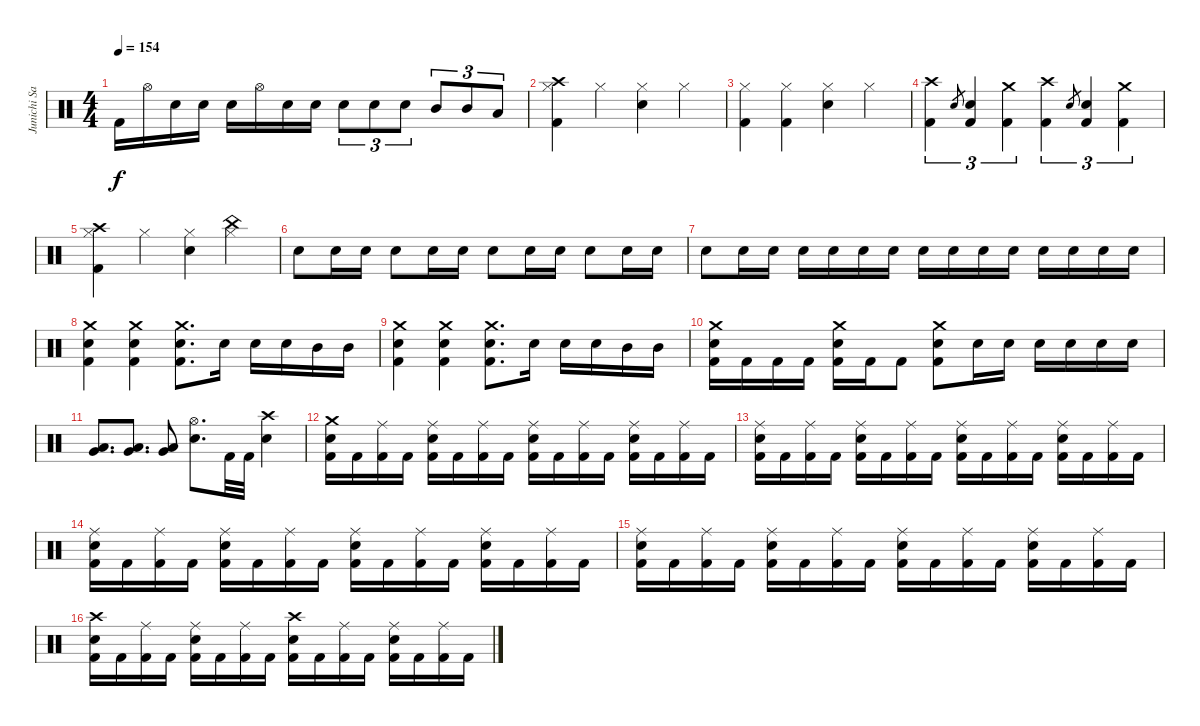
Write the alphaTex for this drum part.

\track ("Junichi Sato" "Junichi Sa") {instrument percussion}
\staff {score}
\articulation defaults
\ts (4 4)
\tempo 154
\clef neutral
\ks c "Kick (hit) 2".16{dy f} "Hi-Hat (open)".16 "Electric Snare (hit)".16 "Electric Snare (hit)".16 "Electric Snare (hit)".16 "Hi-Hat (open)".16 "Electric Snare (hit)".16 "Electric Snare (hit)".16 "Electric Snare (hit)".8{tu (3 2)} "Electric Snare (hit)".8{tu (3 2)} "Electric Snare (hit)".8{tu (3 2)} "Mid Tom (hit)".8{tu (3 2)} "Mid Tom (hit)".8{tu (3 2)} "Low Tom (hit)".8{tu (3 2)}
|
("Crash high (hit)" "Kick (hit) 2" "Hi-Hat (closed)").4 "Hi-Hat (closed)".4 ("Electric Snare (hit)" "Hi-Hat (closed)").4 "Hi-Hat (closed)".4 |
("Kick (hit) 2" "Hi-Hat (closed)").4 ("Kick (hit) 2" "Hi-Hat (closed)").4 ("Electric Snare (hit)" "Hi-Hat (closed)").4 "Hi-Hat (closed)".4 |
("Crash high (hit)" "Kick (hit) 2").4{tu (3 2)} "Electric Snare (hit)".8{gr} ("Electric Snare (hit)" "Kick (hit) 2").4{tu (3 2)} ("Crash medium (hit)" "Kick (hit) 2").4{tu (3 2)} ("Crash high (hit)" "Kick (hit) 2").4{tu (3 2)} "Electric Snare (hit)".8{gr} ("Electric Snare (hit)" "Kick (hit) 2").4{tu (3 2)} ("Crash medium (hit)" "Kick (hit) 2").4{tu (3 2)} |
("Kick (hit) 2" "Crash high (hit)" "Hi-Hat (closed)").4 "Hi-Hat (closed)".4 ("Electric Snare (hit)" "Hi-Hat (closed)").4 ("China (hit)" "Hi-Hat (closed)").4 |
"Electric Snare (hit)".8 "Electric Snare (hit)".16 "Electric Snare (hit)".16 "Electric Snare (hit)".8 "Electric Snare (hit)".16 "Electric Snare (hit)".16 "Electric Snare (hit)".8 "Electric Snare (hit)".16 "Electric Snare (hit)".16 "Electric Snare (hit)".8 "Electric Snare (hit)".16 "Electric Snare (hit)".16 |
"Electric Snare (hit)".8 "Electric Snare (hit)".16 "Electric Snare (hit)".16 "Electric Snare (hit)".16 "Electric Snare (hit)".16 "Electric Snare (hit)".16 "Electric Snare (hit)".16 "Electric Snare (hit)".16 "Electric Snare (hit)".16 "Electric Snare (hit)".16 "Electric Snare (hit)".16 "Electric Snare (hit)".16 "Electric Snare (hit)".16 "Electric Snare (hit)".16 "Electric Snare (hit)".16 |
("Kick (hit) 2" "Crash medium (hit)" "Electric Snare (hit)").4 ("Kick (hit) 2" "Crash medium (hit)" "Electric Snare (hit)").4 ("Kick (hit) 2" "Crash medium (hit)" "Electric Snare (hit)").8{d} "Electric Snare (hit)".16 "Electric Snare (hit)".16 "Electric Snare (hit)".16 "Mid Tom (hit)".16 "Mid Tom (hit)".16 |
("Kick (hit) 2" "Crash medium (hit)" "Electric Snare (hit)").4 ("Kick (hit) 2" "Crash medium (hit)" "Electric Snare (hit)").4 ("Kick (hit) 2" "Crash medium (hit)" "Electric Snare (hit)").8{d} "Electric Snare (hit)".16 "Electric Snare (hit)".16 "Electric Snare (hit)".16 "Mid Tom (hit)".16 "Mid Tom (hit)".16 |
("Kick (hit) 2" "Crash medium (hit)" "Electric Snare (hit)").16 "Kick (hit) 2".16 "Kick (hit) 2".16 "Kick (hit) 2".16 ("Kick (hit) 2" "Crash medium (hit)" "Electric Snare (hit)").16 "Kick (hit) 2".16 "Kick (hit) 2".8 ("Kick (hit) 2" "Crash medium (hit)" "Electric Snare (hit)").8 "Electric Snare (hit)".16 "Electric Snare (hit)".16 "Electric Snare (hit)".16 "Electric Snare (hit)".16 "Electric Snare (hit)".16 "Electric Snare (hit)".16 |
("Low Tom (hit)" "Very Low Tom (hit)").8{d} ("Low Tom (hit)" "Very Low Tom (hit)").8{d} ("Low Tom (hit)" "Very Low Tom (hit)").8 ("Hi-Hat (open)" "Electric Snare (hit)").8{d} "Kick (hit) 2".32 "Kick (hit) 2".32 ("Crash high (hit)" "Electric Snare (hit)").4 |
("Kick (hit) 2" "Crash medium (hit)" "Electric Snare (hit)").16 "Kick (hit) 2".16 ("Kick (hit) 2" "Ride (middle)").16 "Kick (hit) 2".16 ("Kick (hit) 2" "Ride (middle)" "Electric Snare (hit)").16 "Kick (hit) 2".16 ("Kick (hit) 2" "Ride (middle)").16 "Kick (hit) 2".16 ("Kick (hit) 2" "Ride (middle)" "Electric Snare (hit)").16 "Kick (hit) 2".16 ("Kick (hit) 2" "Ride (middle)").16 "Kick (hit) 2".16 ("Kick (hit) 2" "Ride (middle)" "Electric Snare (hit)").16 "Kick (hit) 2".16 ("Kick (hit) 2" "Ride (middle)").16 "Kick (hit) 2".16 |
("Kick (hit) 2" "Ride (middle)" "Electric Snare (hit)").16 "Kick (hit) 2".16 ("Kick (hit) 2" "Ride (middle)").16 "Kick (hit) 2".16 ("Kick (hit) 2" "Ride (middle)" "Electric Snare (hit)").16 "Kick (hit) 2".16 ("Kick (hit) 2" "Ride (middle)").16 "Kick (hit) 2".16 ("Kick (hit) 2" "Ride (middle)" "Electric Snare (hit)").16 "Kick (hit) 2".16 ("Kick (hit) 2" "Ride (middle)").16 "Kick (hit) 2".16 ("Kick (hit) 2" "Ride (middle)" "Electric Snare (hit)").16 "Kick (hit) 2".16 ("Kick (hit) 2" "Ride (middle)").16 "Kick (hit) 2".16 |
("Kick (hit) 2" "Ride (middle)" "Electric Snare (hit)").16 "Kick (hit) 2".16 ("Kick (hit) 2" "Ride (middle)").16 "Kick (hit) 2".16 ("Kick (hit) 2" "Ride (middle)" "Electric Snare (hit)").16 "Kick (hit) 2".16 ("Kick (hit) 2" "Ride (middle)").16 "Kick (hit) 2".16 ("Kick (hit) 2" "Ride (middle)" "Electric Snare (hit)").16 "Kick (hit) 2".16 ("Kick (hit) 2" "Ride (middle)").16 "Kick (hit) 2".16 ("Kick (hit) 2" "Ride (middle)" "Electric Snare (hit)").16 "Kick (hit) 2".16 ("Kick (hit) 2" "Ride (middle)").16 "Kick (hit) 2".16 |
("Kick (hit) 2" "Ride (middle)" "Electric Snare (hit)").16 "Kick (hit) 2".16 ("Kick (hit) 2" "Ride (middle)").16 "Kick (hit) 2".16 ("Kick (hit) 2" "Ride (middle)" "Electric Snare (hit)").16 "Kick (hit) 2".16 ("Kick (hit) 2" "Ride (middle)").16 "Kick (hit) 2".16 ("Kick (hit) 2" "Ride (middle)" "Electric Snare (hit)").16 "Kick (hit) 2".16 ("Kick (hit) 2" "Ride (middle)").16 "Kick (hit) 2".16 ("Kick (hit) 2" "Ride (middle)" "Electric Snare (hit)").16 "Kick (hit) 2".16 ("Kick (hit) 2" "Ride (middle)").16 "Kick (hit) 2".16 |
("Kick (hit) 2" "Crash high (hit)" "Electric Snare (hit)").16 "Kick (hit) 2".16 ("Kick (hit) 2" "Ride (middle)").16 "Kick (hit) 2".16 ("Kick (hit) 2" "Ride (middle)" "Electric Snare (hit)").16 "Kick (hit) 2".16 ("Kick (hit) 2" "Ride (middle)").16 "Kick (hit) 2".16 ("Kick (hit) 2" "Crash high (hit)" "Electric Snare (hit)").16 "Kick (hit) 2".16 ("Kick (hit) 2" "Ride (middle)").16 "Kick (hit) 2".16 ("Kick (hit) 2" "Ride (middle)" "Electric Snare (hit)").16 "Kick (hit) 2".16 ("Kick (hit) 2" "Ride (middle)").16 "Kick (hit) 2".16
